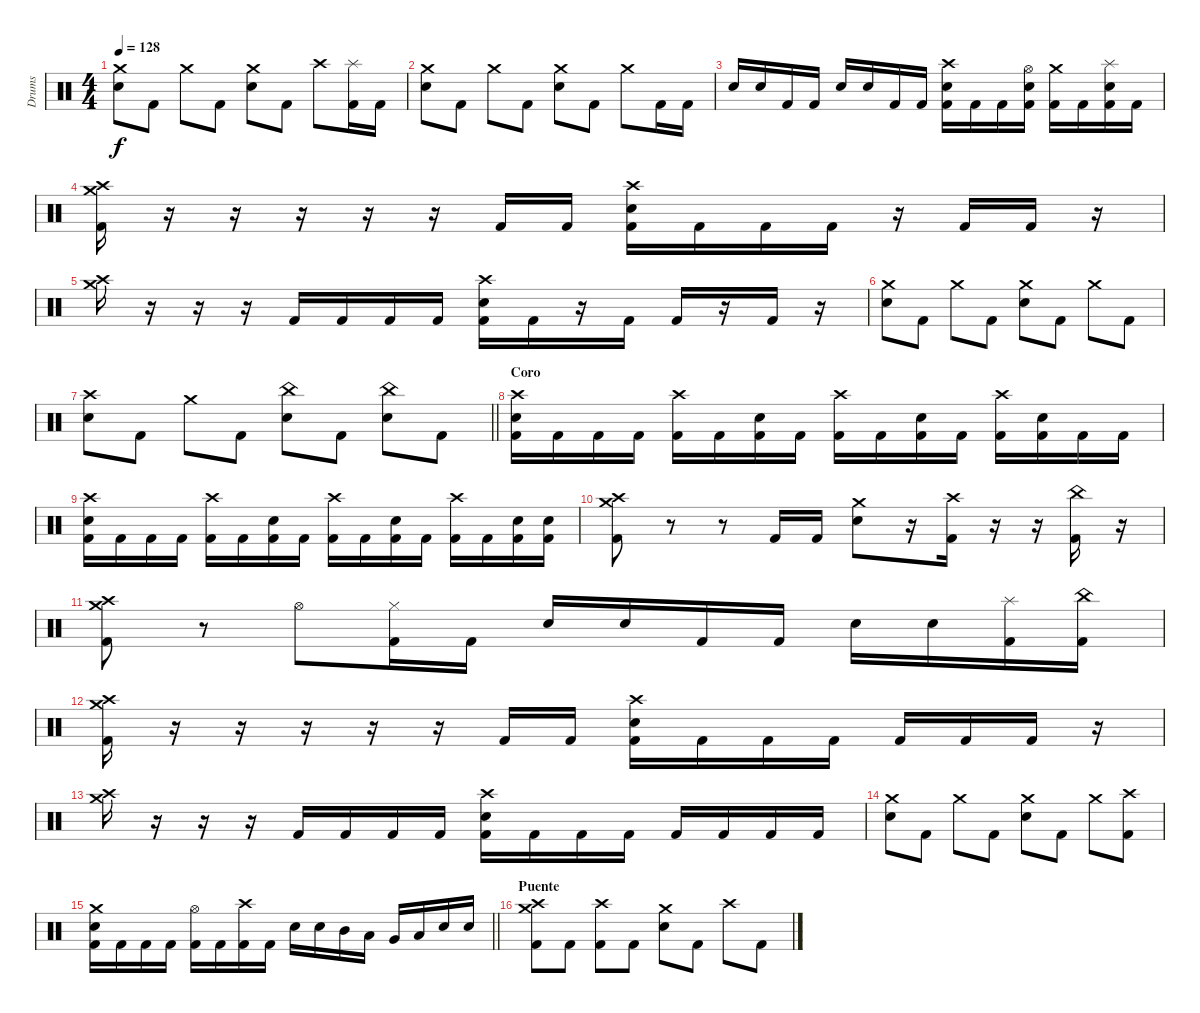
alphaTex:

\track ("Drums" "Drums") {instrument percussion}
\staff {score}
\articulation defaults
\ts (4 4)
\tempo 128
\clef neutral
\ks c
("Crash medium (hit)" "Electric Snare (hit)").8{dy f} "Kick (hit) 2".8 "Crash medium (hit)".8 "Kick (hit) 2".8 ("Crash medium (hit)" "Electric Snare (hit)").8 "Kick (hit) 2".8 "Crash high (hit)".8 ("Splash (hit)" "Kick (hit) 2").16 "Kick (hit) 2".16 |
("Crash medium (hit)" "Electric Snare (hit)").8 "Kick (hit) 2".8 "Crash medium (hit)".8 "Kick (hit) 2".8 ("Crash medium (hit)" "Electric Snare (hit)").8 "Kick (hit) 2".8 "Crash medium (hit)".8 "Kick (hit) 2".16 "Kick (hit) 2".16 |
"Electric Snare (hit)".16 "Electric Snare (hit)".16 "Kick (hit) 2".16 "Kick (hit) 2".16 "Electric Snare (hit)".16 "Electric Snare (hit)".16 "Kick (hit) 2".16 "Kick (hit) 2".16 ("Crash high (hit)" "Electric Snare (hit)" "Kick (hit) 2").16 "Kick (hit) 2".16 "Kick (hit) 2".16 ("Hi-Hat (open)" "Electric Snare (hit)" "Kick (hit) 2").16 ("Crash medium (hit)" "Kick (hit) 2").16 "Kick (hit) 2".16 ("Splash (hit)" "Electric Snare (hit)" "Kick (hit) 2").16 "Kick (hit) 2".16 |
("Crash high (hit)" "Crash medium (hit)" "Kick (hit) 2").16 r.16 r.16 r.16 r.16 r.16 "Kick (hit) 2".16 "Kick (hit) 2".16 ("Crash high (hit)" "Electric Snare (hit)" "Kick (hit) 2").16 "Kick (hit) 2".16 "Kick (hit) 2".16 "Kick (hit) 2".16 r.16 "Kick (hit) 2".16 "Kick (hit) 2".16 r.16 |
("Crash high (hit)" "Crash medium (hit)").16 r.16 r.16 r.16 "Kick (hit) 2".16 "Kick (hit) 2".16 "Kick (hit) 2".16 "Kick (hit) 2".16 ("Crash high (hit)" "Electric Snare (hit)" "Kick (hit) 2").16 "Kick (hit) 2".16 r.16 "Kick (hit) 2".16 "Kick (hit) 2".16 r.16 "Kick (hit) 2".16 r.16 |
("Crash medium (hit)" "Electric Snare (hit)").8 "Kick (hit) 2".8 "Crash medium (hit)".8 "Kick (hit) 2".8 ("Crash medium (hit)" "Electric Snare (hit)").8 "Kick (hit) 2".8 "Crash medium (hit)".8 "Kick (hit) 2".8 |
\barLineRight lightlight
("Crash high (hit)" "Electric Snare (hit)").8 "Kick (hit) 2".8 "Crash medium (hit)".8 "Kick (hit) 2".8 ("China (hit)" "Electric Snare (hit)").8 "Kick (hit) 2".8 ("China (hit)" "Electric Snare (hit)").8 "Kick (hit) 2".8 |
\section ("" "Coro")
("Crash high (hit)" "Electric Snare (hit)" "Kick (hit) 2").16 "Kick (hit) 2".16 "Kick (hit) 2".16 "Kick (hit) 2".16 ("Crash high (hit)" "Kick (hit) 2").16 "Kick (hit) 2".16 ("Electric Snare (hit)" "Kick (hit) 2").16 "Kick (hit) 2".16 ("Crash high (hit)" "Kick (hit) 2").16 "Kick (hit) 2".16 ("Electric Snare (hit)" "Kick (hit) 2").16 "Kick (hit) 2".16 ("Crash high (hit)" "Kick (hit) 2").16 ("Electric Snare (hit)" "Kick (hit) 2").16 "Kick (hit) 2".16 "Kick (hit) 2".16 |
("Crash high (hit)" "Electric Snare (hit)" "Kick (hit) 2").16 "Kick (hit) 2".16 "Kick (hit) 2".16 "Kick (hit) 2".16 ("Crash high (hit)" "Kick (hit) 2").16 "Kick (hit) 2".16 ("Electric Snare (hit)" "Kick (hit) 2").16 "Kick (hit) 2".16 ("Crash high (hit)" "Kick (hit) 2").16 "Kick (hit) 2".16 ("Electric Snare (hit)" "Kick (hit) 2").16 "Kick (hit) 2".16 ("Crash high (hit)" "Kick (hit) 2").16 "Kick (hit) 2".16 ("Electric Snare (hit)" "Kick (hit) 2").16 ("Electric Snare (hit)" "Kick (hit) 2").16 |
("Crash medium (hit)" "Crash high (hit)" "Kick (hit) 2").8 r.8 r.8 "Kick (hit) 2".16 "Kick (hit) 2".16 ("Crash medium (hit)" "Electric Snare (hit)").8 r.16 ("Crash high (hit)" "Kick (hit) 2").16 r.16 r.16 ("China (hit)" "Kick (hit) 2").16 r.16 |
("Crash medium (hit)" "Crash high (hit)" "Kick (hit) 2").8 r.8 "Hi-Hat (open)".8 ("Hi-Hat (closed)" "Kick (hit) 2").16 "Kick (hit) 2".16 "Electric Snare (hit)".16 "Electric Snare (hit)".16 "Kick (hit) 2".16 "Kick (hit) 2".16 "Electric Snare (hit)".16 "Electric Snare (hit)".16 ("Splash (hit)" "Kick (hit) 2").16 ("China (hit)" "Kick (hit) 2").16 |
("Crash high (hit)" "Crash medium (hit)" "Kick (hit) 2").16 r.16 r.16 r.16 r.16 r.16 "Kick (hit) 2".16 "Kick (hit) 2".16 ("Crash high (hit)" "Electric Snare (hit)" "Kick (hit) 2").16 "Kick (hit) 2".16 "Kick (hit) 2".16 "Kick (hit) 2".16 "Kick (hit) 2".16 "Kick (hit) 2".16 "Kick (hit) 2".16 r.16 |
("Crash high (hit)" "Crash medium (hit)").16 r.16 r.16 r.16 "Kick (hit) 2".16 "Kick (hit) 2".16 "Kick (hit) 2".16 "Kick (hit) 2".16 ("Crash high (hit)" "Electric Snare (hit)" "Kick (hit) 2").16 "Kick (hit) 2".16 "Kick (hit) 2".16 "Kick (hit) 2".16 "Kick (hit) 2".16 "Kick (hit) 2".16 "Kick (hit) 2".16 "Kick (hit) 2".16 |
("Crash medium (hit)" "Electric Snare (hit)").8 "Kick (hit) 2".8 "Crash medium (hit)".8 "Kick (hit) 2".8 ("Crash medium (hit)" "Electric Snare (hit)").8 "Kick (hit) 2".8 "Crash medium (hit)".8 ("Crash high (hit)" "Kick (hit) 2").8 |
\barLineRight lightlight
("Crash medium (hit)" "Electric Snare (hit)" "Kick (hit) 2").16 "Kick (hit) 2".16 "Kick (hit) 2".16 "Kick (hit) 2".16 ("Hi-Hat (open)" "Kick (hit) 2").16 "Kick (hit) 2".16 ("Crash high (hit)" "Kick (hit) 2").16 "Kick (hit) 2".16 "Electric Snare (hit)".16 "Electric Snare (hit)".16 "Mid Tom (hit)".16 "Low Tom (hit)".16 "Very Low Tom (hit)".16 "Low Floor Tom (hit)".16 "Electric Snare (hit)".16 "Electric Snare (hit)".16 |
\section ("" "Puente")
("Crash medium (hit)" "Crash high (hit)" "Kick (hit) 2").8 "Kick (hit) 2".8 ("Crash high (hit)" "Kick (hit) 2").8 "Kick (hit) 2".8 ("Crash medium (hit)" "Electric Snare (hit)").8 "Kick (hit) 2".8 "Crash high (hit)".8 "Kick (hit) 2".8
